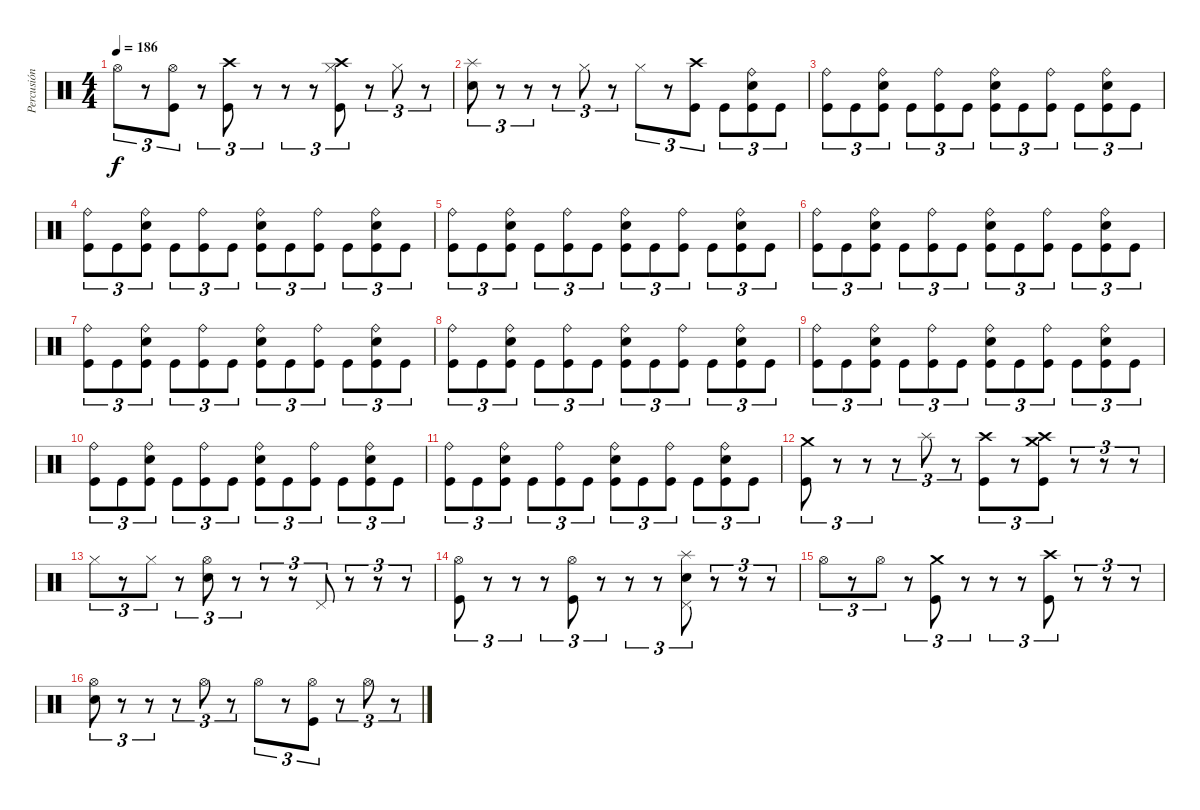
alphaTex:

\track ("Percusión" "Percusión") {instrument percussion}
\staff {score}
\articulation defaults
\ts (4 4)
\tempo 186
\clef neutral
\ks c "Hi-Hat (open)".8{tu (3 2) dy f}
r.8{tu (3 2)} ("Hi-Hat (open)" "Kick (hit)").8{tu (3 2)} r.8{tu (3 2)} ("Crash high (hit)" "Kick (hit)").8{tu (3 2)} r.8{tu (3 2)} r.8{tu (3 2)} r.8{tu (3 2)} ("Crash high (hit)" "Hi-Hat (closed)" "Kick (hit)").8{tu (3 2)} r.8{tu (3 2)} "Hi-Hat (closed)".8{tu (3 2)} r.8{tu (3 2)} |
("Splash (hit)" "Snare (hit) 2").8{tu (3 2)} r.8{tu (3 2)} r.8{tu (3 2)} r.8{tu (3 2)} "Hi-Hat (closed)".8{tu (3 2)} r.8{tu (3 2)} "Hi-Hat (closed)".8{tu (3 2)} r.8{tu (3 2)} ("Crash high (hit)" "Kick (hit)").8{tu (3 2)} "Kick (hit)".8{tu (3 2)} ("Ride (bell)" "Snare (hit) 2" "Kick (hit)").8{tu (3 2)} "Kick (hit)".8{tu (3 2)} |
("Ride (bell)" "Kick (hit)").8{tu (3 2)} "Kick (hit)".8{tu (3 2)} ("Ride (bell)" "Snare (hit) 2" "Kick (hit)").8{tu (3 2)} "Kick (hit)".8{tu (3 2)} ("Ride (bell)" "Kick (hit)").8{tu (3 2)} "Kick (hit)".8{tu (3 2)} ("Ride (bell)" "Snare (hit) 2" "Kick (hit)").8{tu (3 2)} "Kick (hit)".8{tu (3 2)} ("Ride (bell)" "Kick (hit)").8{tu (3 2)} "Kick (hit)".8{tu (3 2)} ("Ride (bell)" "Snare (hit) 2" "Kick (hit)").8{tu (3 2)} "Kick (hit)".8{tu (3 2)} |
("Ride (bell)" "Kick (hit)").8{tu (3 2)} "Kick (hit)".8{tu (3 2)} ("Ride (bell)" "Snare (hit) 2" "Kick (hit)").8{tu (3 2)} "Kick (hit)".8{tu (3 2)} ("Ride (bell)" "Kick (hit)").8{tu (3 2)} "Kick (hit)".8{tu (3 2)} ("Ride (bell)" "Snare (hit) 2" "Kick (hit)").8{tu (3 2)} "Kick (hit)".8{tu (3 2)} ("Ride (bell)" "Kick (hit)").8{tu (3 2)} "Kick (hit)".8{tu (3 2)} ("Ride (bell)" "Snare (hit) 2" "Kick (hit)").8{tu (3 2)} "Kick (hit)".8{tu (3 2)} |
("Ride (bell)" "Kick (hit)").8{tu (3 2)} "Kick (hit)".8{tu (3 2)} ("Ride (bell)" "Snare (hit) 2" "Kick (hit)").8{tu (3 2)} "Kick (hit)".8{tu (3 2)} ("Ride (bell)" "Kick (hit)").8{tu (3 2)} "Kick (hit)".8{tu (3 2)} ("Ride (bell)" "Snare (hit) 2" "Kick (hit)").8{tu (3 2)} "Kick (hit)".8{tu (3 2)} ("Ride (bell)" "Kick (hit)").8{tu (3 2)} "Kick (hit)".8{tu (3 2)} ("Ride (bell)" "Snare (hit) 2" "Kick (hit)").8{tu (3 2)} "Kick (hit)".8{tu (3 2)} |
("Ride (bell)" "Kick (hit)").8{tu (3 2)} "Kick (hit)".8{tu (3 2)} ("Ride (bell)" "Snare (hit) 2" "Kick (hit)").8{tu (3 2)} "Kick (hit)".8{tu (3 2)} ("Ride (bell)" "Kick (hit)").8{tu (3 2)} "Kick (hit)".8{tu (3 2)} ("Ride (bell)" "Snare (hit) 2" "Kick (hit)").8{tu (3 2)} "Kick (hit)".8{tu (3 2)} ("Ride (bell)" "Kick (hit)").8{tu (3 2)} "Kick (hit)".8{tu (3 2)} ("Ride (bell)" "Snare (hit) 2" "Kick (hit)").8{tu (3 2)} "Kick (hit)".8{tu (3 2)} |
("Ride (bell)" "Kick (hit)").8{tu (3 2)} "Kick (hit)".8{tu (3 2)} ("Ride (bell)" "Snare (hit) 2" "Kick (hit)").8{tu (3 2)} "Kick (hit)".8{tu (3 2)} ("Ride (bell)" "Kick (hit)").8{tu (3 2)} "Kick (hit)".8{tu (3 2)} ("Ride (bell)" "Snare (hit) 2" "Kick (hit)").8{tu (3 2)} "Kick (hit)".8{tu (3 2)} ("Ride (bell)" "Kick (hit)").8{tu (3 2)} "Kick (hit)".8{tu (3 2)} ("Ride (bell)" "Snare (hit) 2" "Kick (hit)").8{tu (3 2)} "Kick (hit)".8{tu (3 2)} |
("Ride (bell)" "Kick (hit)").8{tu (3 2)} "Kick (hit)".8{tu (3 2)} ("Ride (bell)" "Snare (hit) 2" "Kick (hit)").8{tu (3 2)} "Kick (hit)".8{tu (3 2)} ("Ride (bell)" "Kick (hit)").8{tu (3 2)} "Kick (hit)".8{tu (3 2)} ("Ride (bell)" "Snare (hit) 2" "Kick (hit)").8{tu (3 2)} "Kick (hit)".8{tu (3 2)} ("Ride (bell)" "Kick (hit)").8{tu (3 2)} "Kick (hit)".8{tu (3 2)} ("Ride (bell)" "Snare (hit) 2" "Kick (hit)").8{tu (3 2)} "Kick (hit)".8{tu (3 2)} |
("Ride (bell)" "Kick (hit)").8{tu (3 2)} "Kick (hit)".8{tu (3 2)} ("Ride (bell)" "Snare (hit) 2" "Kick (hit)").8{tu (3 2)} "Kick (hit)".8{tu (3 2)} ("Ride (bell)" "Kick (hit)").8{tu (3 2)} "Kick (hit)".8{tu (3 2)} ("Ride (bell)" "Snare (hit) 2" "Kick (hit)").8{tu (3 2)} "Kick (hit)".8{tu (3 2)} ("Ride (bell)" "Kick (hit)").8{tu (3 2)} "Kick (hit)".8{tu (3 2)} ("Ride (bell)" "Snare (hit) 2" "Kick (hit)").8{tu (3 2)} "Kick (hit)".8{tu (3 2)} |
("Ride (bell)" "Kick (hit)").8{tu (3 2)} "Kick (hit)".8{tu (3 2)} ("Ride (bell)" "Snare (hit) 2" "Kick (hit)").8{tu (3 2)} "Kick (hit)".8{tu (3 2)} ("Ride (bell)" "Kick (hit)").8{tu (3 2)} "Kick (hit)".8{tu (3 2)} ("Ride (bell)" "Snare (hit) 2" "Kick (hit)").8{tu (3 2)} "Kick (hit)".8{tu (3 2)} ("Ride (bell)" "Kick (hit)").8{tu (3 2)} "Kick (hit)".8{tu (3 2)} ("Ride (bell)" "Snare (hit) 2" "Kick (hit)").8{tu (3 2)} "Kick (hit)".8{tu (3 2)} |
("Ride (bell)" "Kick (hit)").8{tu (3 2)} "Kick (hit)".8{tu (3 2)} ("Ride (bell)" "Snare (hit) 2" "Kick (hit)").8{tu (3 2)} "Kick (hit)".8{tu (3 2)} ("Ride (bell)" "Kick (hit)").8{tu (3 2)} "Kick (hit)".8{tu (3 2)} ("Ride (bell)" "Snare (hit) 2" "Kick (hit)").8{tu (3 2)} "Kick (hit)".8{tu (3 2)} ("Ride (bell)" "Kick (hit)").8{tu (3 2)} "Kick (hit)".8{tu (3 2)} ("Ride (bell)" "Snare (hit) 2" "Kick (hit)").8{tu (3 2)} "Kick (hit)".8{tu (3 2)} |
("Crash medium (hit)" "Kick (hit)").8{tu (3 2)} r.8{tu (3 2)} r.8{tu (3 2)} r.8{tu (3 2)} "Splash (hit)".8{tu (3 2)} r.8{tu (3 2)} ("Crash high (hit)" "Kick (hit)").8{tu (3 2)} r.8{tu (3 2)} ("Crash high (hit)" "Crash medium (hit)" "Kick (hit)").8{tu (3 2)} r.8{tu (3 2)} r.8{tu (3 2)} r.8{tu (3 2)} |
"Hi-Hat (closed)".8{tu (3 2)} r.8{tu (3 2)} "Hi-Hat (closed)".8{tu (3 2)} r.8{tu (3 2)} ("Hi-Hat (open)" "Snare (hit) 2").8{tu (3 2)} r.8{tu (3 2)} r.8{tu (3 2)} r.8{tu (3 2)} "Pedal Hi-Hat (hit)".8{tu (3 2)} r.8{tu (3 2)} r.8{tu (3 2)} r.8{tu (3 2)} |
("Hi-Hat (open)" "Kick (hit)").8{tu (3 2)} r.8{tu (3 2)} r.8{tu (3 2)} r.8{tu (3 2)} ("Hi-Hat (open)" "Kick (hit)").8{tu (3 2)} r.8{tu (3 2)} r.8{tu (3 2)} r.8{tu (3 2)} ("Splash (hit)" "Pedal Hi-Hat (hit)" "Snare (hit) 2").8{tu (3 2)} r.8{tu (3 2)} r.8{tu (3 2)} r.8{tu (3 2)} |
"Hi-Hat (open)".8{tu (3 2)} r.8{tu (3 2)} "Hi-Hat (open)".8{tu (3 2)} r.8{tu (3 2)} ("Crash medium (hit)" "Kick (hit)").8{tu (3 2)} r.8{tu (3 2)} r.8{tu (3 2)} r.8{tu (3 2)} ("Crash high (hit)" "Kick (hit)").8{tu (3 2)} r.8{tu (3 2)} r.8{tu (3 2)} r.8{tu (3 2)} |
("Hi-Hat (open)" "Snare (hit) 2").8{tu (3 2)} r.8{tu (3 2)} r.8{tu (3 2)} r.8{tu (3 2)} "Hi-Hat (open)".8{tu (3 2)} r.8{tu (3 2)} "Hi-Hat (open)".8{tu (3 2)} r.8{tu (3 2)} ("Hi-Hat (open)" "Kick (hit)").8{tu (3 2)} r.8{tu (3 2)} "Hi-Hat (open)".8{tu (3 2)} r.8{tu (3 2)}
